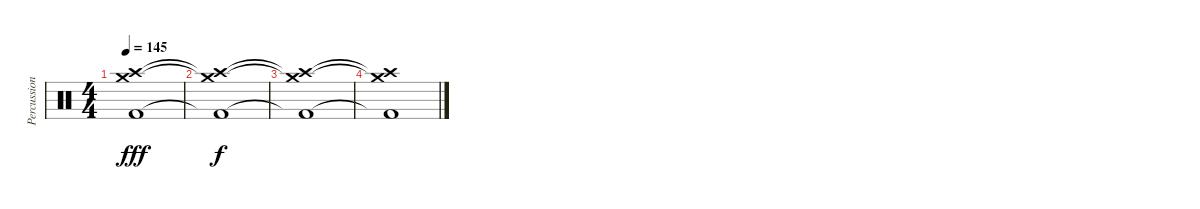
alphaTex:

\track ("Percussion" "Percussion") {instrument percussion}
\staff {score}
\articulation defaults
\ts (4 4)
\tempo 145
\clef neutral
\ks c
("Crash high (hit)" "Crash medium (hit)" "Kick (hit) 2").1{dy fff} |
("Crash high (hit)"{t} "Crash medium (hit)"{t} "Kick (hit) 2"{t}).1{dy f} |
("Crash high (hit)"{t} "Crash medium (hit)"{t} "Kick (hit) 2"{t}).1 |
("Crash high (hit)"{t} "Crash medium (hit)"{t} "Kick (hit) 2"{t}).1
